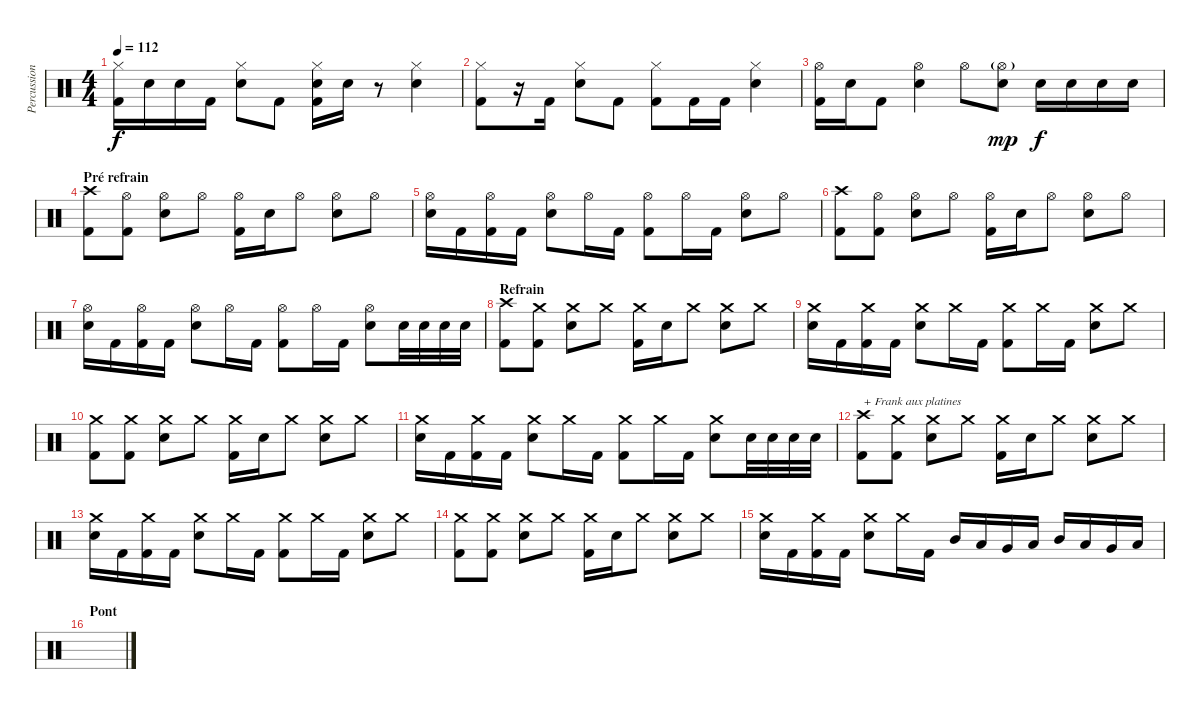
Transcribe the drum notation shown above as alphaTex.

\track ("Percussions" "Percussion") {instrument percussion}
\staff {score}
\articulation defaults
\ts (4 4)
\tempo 112
\clef neutral
\ks c
("Hi-Hat (closed)" "Kick (hit) 2").16{dy f} "Electric Snare (hit)".16 "Electric Snare (hit)".16 "Kick (hit) 2".16 ("Hi-Hat (closed)" "Electric Snare (hit)").8 "Kick (hit) 2".8 ("Hi-Hat (closed)" "Electric Snare (hit)" "Kick (hit) 2").16 "Electric Snare (hit)".16 r.8 ("Hi-Hat (closed)" "Electric Snare (hit)").4 |
("Hi-Hat (closed)" "Kick (hit) 2").8 r.16 "Kick (hit) 2".16 ("Hi-Hat (closed)" "Electric Snare (hit)").8 "Kick (hit) 2".8 ("Hi-Hat (closed)" "Kick (hit) 2").8 "Kick (hit) 2".16 "Kick (hit) 2".16 ("Hi-Hat (closed)" "Electric Snare (hit)").4 |
("Hi-Hat (open)" "Kick (hit) 2").16 "Electric Snare (hit)".16 "Kick (hit) 2".8 ("Hi-Hat (open)" "Electric Snare (hit)").4 "Hi-Hat (open)".8 ("Hi-Hat (open)"{g} "Electric Snare (hit)").8{dy mp} "Electric Snare (hit)".16{dy f} "Electric Snare (hit)".16 "Electric Snare (hit)".16 "Electric Snare (hit)".16 |
\section ("" "Pré refrain")
("Crash high (hit)" "Kick (hit) 2").8 ("Hi-Hat (open)" "Kick (hit) 2").8 ("Hi-Hat (open)" "Electric Snare (hit)").8 "Hi-Hat (open)".8 ("Hi-Hat (open)" "Kick (hit) 2").16 "Electric Snare (hit)".16 "Hi-Hat (open)".8 ("Hi-Hat (open)" "Electric Snare (hit)").8 "Hi-Hat (open)".8 |
("Hi-Hat (open)" "Electric Snare (hit)").16 "Kick (hit) 2".16 ("Hi-Hat (open)" "Kick (hit) 2").16 "Kick (hit) 2".16 ("Hi-Hat (open)" "Electric Snare (hit)").8 "Hi-Hat (open)".16 "Kick (hit) 2".16 ("Hi-Hat (open)" "Kick (hit) 2").8 "Hi-Hat (open)".16 "Kick (hit) 2".16 ("Hi-Hat (open)" "Electric Snare (hit)").8 "Hi-Hat (open)".8 |
("Crash high (hit)" "Kick (hit) 2").8 ("Hi-Hat (open)" "Kick (hit) 2").8 ("Hi-Hat (open)" "Electric Snare (hit)").8 "Hi-Hat (open)".8 ("Hi-Hat (open)" "Kick (hit) 2").16 "Electric Snare (hit)".16 "Hi-Hat (open)".8 ("Hi-Hat (open)" "Electric Snare (hit)").8 "Hi-Hat (open)".8 |
("Hi-Hat (open)" "Electric Snare (hit)").16 "Kick (hit) 2".16 ("Hi-Hat (open)" "Kick (hit) 2").16 "Kick (hit) 2".16 ("Hi-Hat (open)" "Electric Snare (hit)").8 "Hi-Hat (open)".16 "Kick (hit) 2".16 ("Hi-Hat (open)" "Kick (hit) 2").8 "Hi-Hat (open)".16 "Kick (hit) 2".16 ("Hi-Hat (open)" "Electric Snare (hit)").8 "Electric Snare (hit)".32 "Electric Snare (hit)".32 "Electric Snare (hit)".32 "Electric Snare (hit)".32 |
\section ("" "Refrain")
("Crash high (hit)" "Kick (hit) 2").8 ("Crash medium (hit)" "Kick (hit) 2").8 ("Crash medium (hit)" "Electric Snare (hit)").8 "Crash medium (hit)".8 ("Crash medium (hit)" "Kick (hit) 2").16 "Electric Snare (hit)".16 "Crash medium (hit)".8 ("Crash medium (hit)" "Electric Snare (hit)").8 "Crash medium (hit)".8 |
("Crash medium (hit)" "Electric Snare (hit)").16 "Kick (hit) 2".16 ("Crash medium (hit)" "Kick (hit) 2").16 "Kick (hit) 2".16 ("Crash medium (hit)" "Electric Snare (hit)").8 "Crash medium (hit)".16 "Kick (hit) 2".16 ("Crash medium (hit)" "Kick (hit) 2").8 "Crash medium (hit)".16 "Kick (hit) 2".16 ("Crash medium (hit)" "Electric Snare (hit)").8 "Crash medium (hit)".8 |
("Crash medium (hit)" "Kick (hit) 2").8 ("Crash medium (hit)" "Kick (hit) 2").8 ("Crash medium (hit)" "Electric Snare (hit)").8 "Crash medium (hit)".8 ("Crash medium (hit)" "Kick (hit) 2").16 "Electric Snare (hit)".16 "Crash medium (hit)".8 ("Crash medium (hit)" "Electric Snare (hit)").8 "Crash medium (hit)".8 |
("Crash medium (hit)" "Electric Snare (hit)").16 "Kick (hit) 2".16 ("Crash medium (hit)" "Kick (hit) 2").16 "Kick (hit) 2".16 ("Crash medium (hit)" "Electric Snare (hit)").8 "Crash medium (hit)".16 "Kick (hit) 2".16 ("Crash medium (hit)" "Kick (hit) 2").8 "Crash medium (hit)".16 "Kick (hit) 2".16 ("Crash medium (hit)" "Electric Snare (hit)").8 "Electric Snare (hit)".32 "Electric Snare (hit)".32 "Electric Snare (hit)".32 "Electric Snare (hit)".32 |
("Crash high (hit)" "Kick (hit) 2").8{txt "+ Frank aux platines"} ("Crash medium (hit)" "Kick (hit) 2").8 ("Crash medium (hit)" "Electric Snare (hit)").8 "Crash medium (hit)".8 ("Crash medium (hit)" "Kick (hit) 2").16 "Electric Snare (hit)".16 "Crash medium (hit)".8 ("Crash medium (hit)" "Electric Snare (hit)").8 "Crash medium (hit)".8 |
("Crash medium (hit)" "Electric Snare (hit)").16 "Kick (hit) 2".16 ("Crash medium (hit)" "Kick (hit) 2").16 "Kick (hit) 2".16 ("Crash medium (hit)" "Electric Snare (hit)").8 "Crash medium (hit)".16 "Kick (hit) 2".16 ("Crash medium (hit)" "Kick (hit) 2").8 "Crash medium (hit)".16 "Kick (hit) 2".16 ("Crash medium (hit)" "Electric Snare (hit)").8 "Crash medium (hit)".8 |
("Crash medium (hit)" "Kick (hit) 2").8 ("Crash medium (hit)" "Kick (hit) 2").8 ("Crash medium (hit)" "Electric Snare (hit)").8 "Crash medium (hit)".8 ("Crash medium (hit)" "Kick (hit) 2").16 "Electric Snare (hit)".16 "Crash medium (hit)".8 ("Crash medium (hit)" "Electric Snare (hit)").8 "Crash medium (hit)".8 |
("Crash medium (hit)" "Electric Snare (hit)").16 "Kick (hit) 2".16 ("Crash medium (hit)" "Kick (hit) 2").16 "Kick (hit) 2".16 ("Crash medium (hit)" "Electric Snare (hit)").8 "Crash medium (hit)".16 "Kick (hit) 2".16 "Mid Tom (hit)".16 "Low Tom (hit)".16 "Very Low Tom (hit)".16 "Low Floor Tom (hit)".16 "Mid Tom (hit)".16 "Low Tom (hit)".16 "Very Low Tom (hit)".16 "Low Floor Tom (hit)".16 |
\section ("" "Pont")
